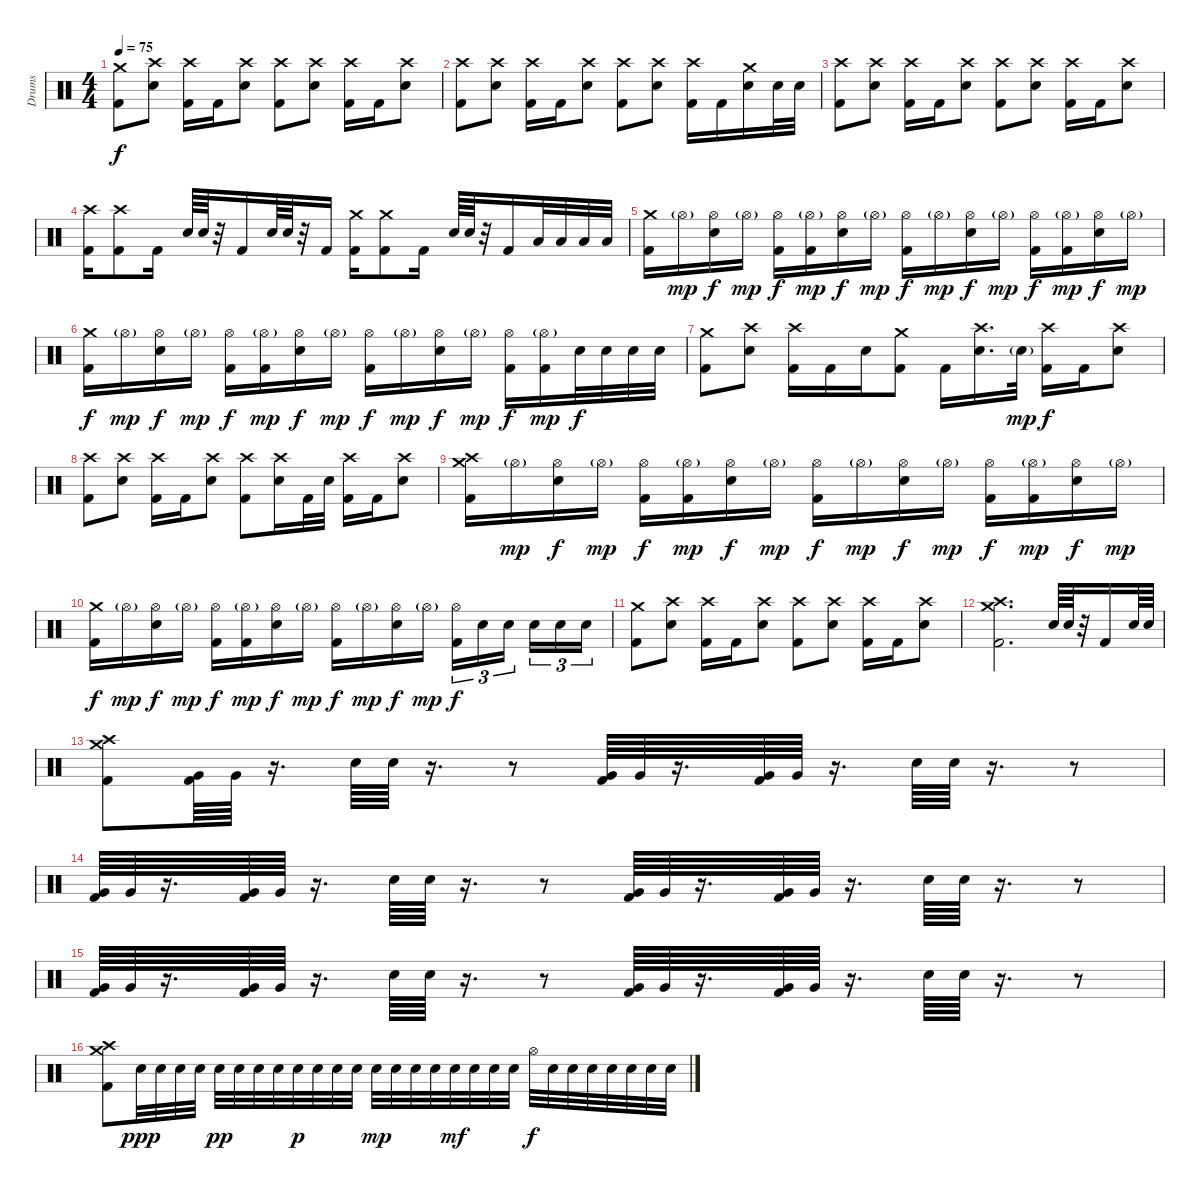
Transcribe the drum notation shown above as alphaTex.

\track ("Drums" "Drums") {instrument percussion bank 34}
\staff {score}
\articulation defaults
\ts (4 4)
\tempo 75
\clef neutral
\ks c
("Crash medium (hit)" "Kick (hit) 2").8{dy f} ("Crash high (hit)" "Electric Snare (hit)").8 ("Crash high (hit)" "Kick (hit) 2").16 "Kick (hit) 2".16 ("Crash high (hit)" "Electric Snare (hit)").8 ("Crash high (hit)" "Kick (hit) 2").8 ("Crash high (hit)" "Electric Snare (hit)").8 ("Crash high (hit)" "Kick (hit) 2").16 "Kick (hit) 2".16 ("Crash high (hit)" "Electric Snare (hit)").8 |
("Crash high (hit)" "Kick (hit) 2").8 ("Crash high (hit)" "Electric Snare (hit)").8 ("Crash high (hit)" "Kick (hit) 2").16 "Kick (hit) 2".16 ("Crash high (hit)" "Electric Snare (hit)").8 ("Crash high (hit)" "Kick (hit) 2").8 ("Crash high (hit)" "Electric Snare (hit)").8 ("Crash high (hit)" "Kick (hit) 2").16 "Kick (hit) 2".16 ("Crash medium (hit)" "Electric Snare (hit)").16 "Electric Snare (hit)".32 "Electric Snare (hit)".32 |
("Crash high (hit)" "Kick (hit) 2").8 ("Crash high (hit)" "Electric Snare (hit)").8 ("Crash high (hit)" "Kick (hit) 2").16 "Kick (hit) 2".16 ("Crash high (hit)" "Electric Snare (hit)").8 ("Crash high (hit)" "Kick (hit) 2").8 ("Crash high (hit)" "Electric Snare (hit)").8 ("Crash high (hit)" "Kick (hit) 2").16 "Kick (hit) 2".16 ("Crash high (hit)" "Electric Snare (hit)").8 |
("Crash high (hit)" "Kick (hit) 2").16 ("Crash high (hit)" "Kick (hit) 2").8 "Kick (hit) 2".16 "Electric Snare (hit)".64 "Electric Snare (hit)".64 r.32 "Kick (hit) 2".16 "Electric Snare (hit)".64 "Electric Snare (hit)".64 r.32 "Kick (hit) 2".16 ("Crash medium (hit)" "Kick (hit) 2").16 ("Crash medium (hit)" "Kick (hit) 2").8 "Kick (hit) 2".16 "Electric Snare (hit)".64 "Electric Snare (hit)".64 r.32 "Kick (hit) 2".16 "Low Tom (hit)".32 "Low Tom (hit)".32 "Low Tom (hit)".32 "Low Tom (hit)".32 |
("Crash medium (hit)" "Kick (hit) 2").16 "Hi-Hat (open)"{g}.16{dy mp} ("Hi-Hat (open)" "Electric Snare (hit)").16{dy f} "Hi-Hat (open)"{g}.16{dy mp} ("Hi-Hat (open)" "Kick (hit) 2").16{dy f} ("Hi-Hat (open)"{g} "Kick (hit) 2").16{dy mp} ("Hi-Hat (open)" "Electric Snare (hit)").16{dy f} "Hi-Hat (open)"{g}.16{dy mp} ("Hi-Hat (open)" "Kick (hit) 2").16{dy f} "Hi-Hat (open)"{g}.16{dy mp} ("Hi-Hat (open)" "Electric Snare (hit)").16{dy f} "Hi-Hat (open)"{g}.16{dy mp} ("Hi-Hat (open)" "Kick (hit) 2").16{dy f} ("Hi-Hat (open)"{g} "Kick (hit) 2").16{dy mp} ("Hi-Hat (open)" "Electric Snare (hit)").16{dy f} "Hi-Hat (open)"{g}.16{dy mp} |
("Crash medium (hit)" "Kick (hit) 2").16{dy f} "Hi-Hat (open)"{g}.16{dy mp} ("Hi-Hat (open)" "Electric Snare (hit)").16{dy f} "Hi-Hat (open)"{g}.16{dy mp} ("Hi-Hat (open)" "Kick (hit) 2").16{dy f} ("Hi-Hat (open)"{g} "Kick (hit) 2").16{dy mp} ("Hi-Hat (open)" "Electric Snare (hit)").16{dy f} "Hi-Hat (open)"{g}.16{dy mp} ("Hi-Hat (open)" "Kick (hit) 2").16{dy f} "Hi-Hat (open)"{g}.16{dy mp} ("Hi-Hat (open)" "Electric Snare (hit)").16{dy f} "Hi-Hat (open)"{g}.16{dy mp} ("Hi-Hat (open)" "Kick (hit) 2").16{dy f} ("Hi-Hat (open)"{g} "Kick (hit) 2").16{dy mp} "Electric Snare (hit)".32{dy f} "Electric Snare (hit)".32 "Electric Snare (hit)".32 "Electric Snare (hit)".32 |
("Crash medium (hit)" "Kick (hit) 2").8 ("Crash high (hit)" "Electric Snare (hit)").8 ("Crash high (hit)" "Kick (hit) 2").16 "Kick (hit) 2".16 "Electric Snare (hit)".16 ("Crash medium (hit)" "Kick (hit) 2").8 "Kick (hit) 2".16 ("Crash high (hit)" "Electric Snare (hit)").16{d} "Electric Snare (hit)"{g}.32{dy mp} ("Crash high (hit)" "Kick (hit) 2").16{dy f} "Kick (hit) 2".16 ("Crash high (hit)" "Electric Snare (hit)").8 |
("Crash high (hit)" "Kick (hit) 2").8 ("Crash high (hit)" "Electric Snare (hit)").8 ("Crash high (hit)" "Kick (hit) 2").16 "Kick (hit) 2".16 ("Crash high (hit)" "Electric Snare (hit)").8 ("Crash high (hit)" "Kick (hit) 2").8 ("Crash high (hit)" "Electric Snare (hit)").16 "Kick (hit) 2".32 "Electric Snare (hit)".32 ("Crash high (hit)" "Kick (hit) 2").16 "Kick (hit) 2".16 ("Crash high (hit)" "Electric Snare (hit)").8 |
("Crash medium (hit)" "Crash high (hit)" "Kick (hit) 2").16 "Hi-Hat (open)"{g}.16{dy mp} ("Hi-Hat (open)" "Electric Snare (hit)").16{dy f} "Hi-Hat (open)"{g}.16{dy mp} ("Hi-Hat (open)" "Kick (hit) 2").16{dy f} ("Hi-Hat (open)"{g} "Kick (hit) 2").16{dy mp} ("Hi-Hat (open)" "Electric Snare (hit)").16{dy f} "Hi-Hat (open)"{g}.16{dy mp} ("Hi-Hat (open)" "Kick (hit) 2").16{dy f} "Hi-Hat (open)"{g}.16{dy mp} ("Hi-Hat (open)" "Electric Snare (hit)").16{dy f} "Hi-Hat (open)"{g}.16{dy mp} ("Hi-Hat (open)" "Kick (hit) 2").16{dy f} ("Hi-Hat (open)"{g} "Kick (hit) 2").16{dy mp} ("Hi-Hat (open)" "Electric Snare (hit)").16{dy f} "Hi-Hat (open)"{g}.16{dy mp} |
("Crash medium (hit)" "Kick (hit) 2").16{dy f} "Hi-Hat (open)"{g}.16{dy mp} ("Hi-Hat (open)" "Electric Snare (hit)").16{dy f} "Hi-Hat (open)"{g}.16{dy mp} ("Hi-Hat (open)" "Kick (hit) 2").16{dy f} ("Hi-Hat (open)"{g} "Kick (hit) 2").16{dy mp} ("Hi-Hat (open)" "Electric Snare (hit)").16{dy f} "Hi-Hat (open)"{g}.16{dy mp} ("Hi-Hat (open)" "Kick (hit) 2").16{dy f} "Hi-Hat (open)"{g}.16{dy mp} ("Hi-Hat (open)" "Electric Snare (hit)").16{dy f} "Hi-Hat (open)"{g}.16{dy mp} ("Hi-Hat (open)" "Kick (hit) 2").16{tu (3 2) dy f} "Electric Snare (hit)".16{tu (3 2)} "Electric Snare (hit)".16{tu (3 2) beam splitsecondary} "Electric Snare (hit)".16{tu (3 2)} "Electric Snare (hit)".16{tu (3 2)} "Electric Snare (hit)".16{tu (3 2)} |
("Crash medium (hit)" "Kick (hit) 2").8 ("Crash high (hit)" "Electric Snare (hit)").8 ("Crash high (hit)" "Kick (hit) 2").16 "Kick (hit) 2".16 ("Crash high (hit)" "Electric Snare (hit)").8 ("Crash high (hit)" "Kick (hit) 2").8 ("Crash high (hit)" "Electric Snare (hit)").8 ("Crash high (hit)" "Kick (hit) 2").16 "Kick (hit) 2".16 ("Crash high (hit)" "Electric Snare (hit)").8 |
("Crash medium (hit)" "Crash high (hit)" "Kick (hit) 2").2{d} "Electric Snare (hit)".64 "Electric Snare (hit)".64 r.32 "Kick (hit) 2".16 "Electric Snare (hit)".64 "Electric Snare (hit)".64 |
("Crash medium (hit)" "Crash high (hit)" "Kick (hit) 2").8 ("Very Low Tom (hit)" "Kick (hit) 2").64 "Very Low Tom (hit)".64 r.16{d} "Electric Snare (hit)".64 "Electric Snare (hit)".64 r.16{d} r.8 ("Very Low Tom (hit)" "Kick (hit) 2").64 "Very Low Tom (hit)".64 r.16{d} ("Very Low Tom (hit)" "Kick (hit) 2").64 "Very Low Tom (hit)".64 r.16{d} "Electric Snare (hit)".64 "Electric Snare (hit)".64 r.16{d} r.8 |
("Very Low Tom (hit)" "Kick (hit) 2").64 "Very Low Tom (hit)".64 r.16{d} ("Very Low Tom (hit)" "Kick (hit) 2").64 "Very Low Tom (hit)".64 r.16{d} "Electric Snare (hit)".64 "Electric Snare (hit)".64 r.16{d} r.8 ("Very Low Tom (hit)" "Kick (hit) 2").64 "Very Low Tom (hit)".64 r.16{d} ("Very Low Tom (hit)" "Kick (hit) 2").64 "Very Low Tom (hit)".64 r.16{d} "Electric Snare (hit)".64 "Electric Snare (hit)".64 r.16{d} r.8 |
("Very Low Tom (hit)" "Kick (hit) 2").64 "Very Low Tom (hit)".64 r.16{d} ("Very Low Tom (hit)" "Kick (hit) 2").64 "Very Low Tom (hit)".64 r.16{d} "Electric Snare (hit)".64 "Electric Snare (hit)".64 r.16{d} r.8 ("Very Low Tom (hit)" "Kick (hit) 2").64 "Very Low Tom (hit)".64 r.16{d} ("Very Low Tom (hit)" "Kick (hit) 2").64 "Very Low Tom (hit)".64 r.16{d} "Electric Snare (hit)".64 "Electric Snare (hit)".64 r.16{d} r.8 |
("Crash medium (hit)" "Crash high (hit)" "Kick (hit) 2").8 "Electric Snare (hit)".32{dy ppp} "Electric Snare (hit)".32 "Electric Snare (hit)".32 "Electric Snare (hit)".32 "Electric Snare (hit)".32{dy pp} "Electric Snare (hit)".32 "Electric Snare (hit)".32 "Electric Snare (hit)".32 "Electric Snare (hit)".32{dy p} "Electric Snare (hit)".32 "Electric Snare (hit)".32 "Electric Snare (hit)".32 "Electric Snare (hit)".32{dy mp} "Electric Snare (hit)".32 "Electric Snare (hit)".32 "Electric Snare (hit)".32 "Electric Snare (hit)".32{dy mf} "Electric Snare (hit)".32 "Electric Snare (hit)".32 "Electric Snare (hit)".32 "Hi-Hat (open)".32{dy f} "Electric Snare (hit)".32 "Electric Snare (hit)".32 "Electric Snare (hit)".32 "Electric Snare (hit)".32 "Electric Snare (hit)".32 "Electric Snare (hit)".32 "Electric Snare (hit)".32
